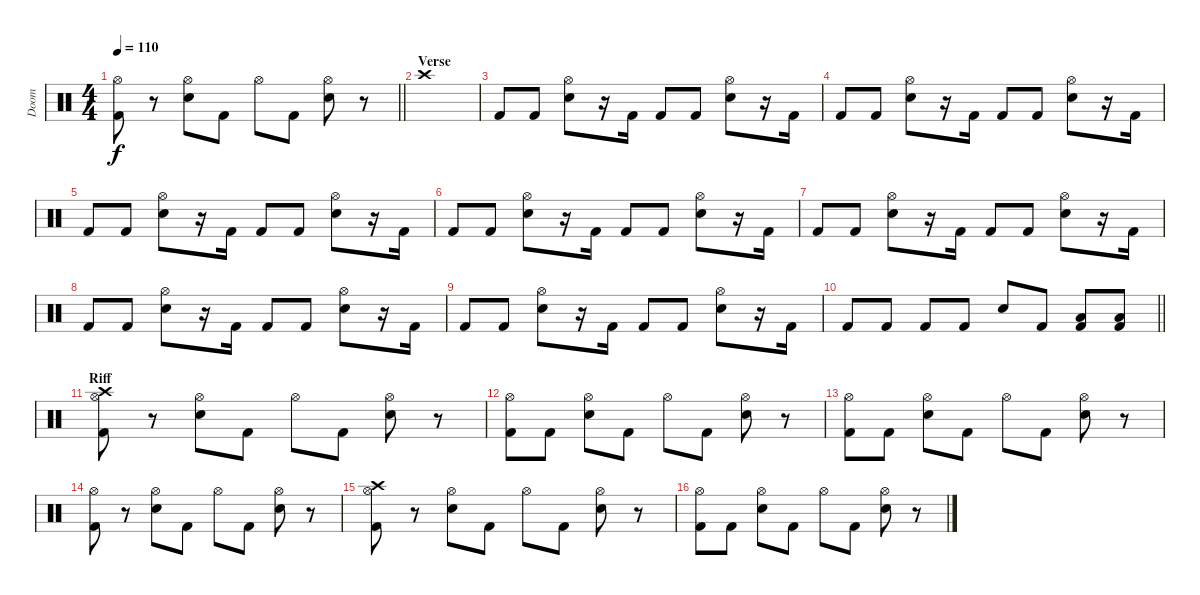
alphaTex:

\track ("Doom" "Doom") {instrument percussion}
\staff {score}
\articulation defaults
\ts (4 4)
\tempo 110
\clef neutral
\barLineRight lightlight
\ks c
("Hi-Hat (open)" "Kick (hit) 2").8{dy f} r.8 ("Hi-Hat (open)" "Electric Snare (hit)").8 "Kick (hit) 2".8 "Hi-Hat (open)".8 "Kick (hit) 2".8 ("Hi-Hat (open)" "Electric Snare (hit)").8 r.8 |
\section ("" "Verse")
"Crash high (hit)".1 |
"Kick (hit) 2".8 "Kick (hit) 2".8 ("Hi-Hat (open)" "Electric Snare (hit)").8 r.16 "Kick (hit) 2".16 "Kick (hit) 2".8 "Kick (hit) 2".8 ("Hi-Hat (open)" "Electric Snare (hit)").8 r.16 "Kick (hit) 2".16 |
"Kick (hit) 2".8 "Kick (hit) 2".8 ("Hi-Hat (open)" "Electric Snare (hit)").8 r.16 "Kick (hit) 2".16 "Kick (hit) 2".8 "Kick (hit) 2".8 ("Hi-Hat (open)" "Electric Snare (hit)").8 r.16 "Kick (hit) 2".16 |
"Kick (hit) 2".8 "Kick (hit) 2".8 ("Hi-Hat (open)" "Electric Snare (hit)").8 r.16 "Kick (hit) 2".16 "Kick (hit) 2".8 "Kick (hit) 2".8 ("Hi-Hat (open)" "Electric Snare (hit)").8 r.16 "Kick (hit) 2".16 |
"Kick (hit) 2".8 "Kick (hit) 2".8 ("Hi-Hat (open)" "Electric Snare (hit)").8 r.16 "Kick (hit) 2".16 "Kick (hit) 2".8 "Kick (hit) 2".8 ("Hi-Hat (open)" "Electric Snare (hit)").8 r.16 "Kick (hit) 2".16 |
"Kick (hit) 2".8 "Kick (hit) 2".8 ("Hi-Hat (open)" "Electric Snare (hit)").8 r.16 "Kick (hit) 2".16 "Kick (hit) 2".8 "Kick (hit) 2".8 ("Hi-Hat (open)" "Electric Snare (hit)").8 r.16 "Kick (hit) 2".16 |
"Kick (hit) 2".8 "Kick (hit) 2".8 ("Hi-Hat (open)" "Electric Snare (hit)").8 r.16 "Kick (hit) 2".16 "Kick (hit) 2".8 "Kick (hit) 2".8 ("Hi-Hat (open)" "Electric Snare (hit)").8 r.16 "Kick (hit) 2".16 |
"Kick (hit) 2".8 "Kick (hit) 2".8 ("Hi-Hat (open)" "Electric Snare (hit)").8 r.16 "Kick (hit) 2".16 "Kick (hit) 2".8 "Kick (hit) 2".8 ("Hi-Hat (open)" "Electric Snare (hit)").8 r.16 "Kick (hit) 2".16 |
\barLineRight lightlight "Kick (hit) 2".8 "Kick (hit) 2".8 "Kick (hit) 2".8 "Kick (hit) 2".8 "Electric Snare (hit)".8 "Kick (hit) 2".8
("Low Floor Tom (hit)" "Kick (hit) 2").8 ("Low Floor Tom (hit)" "Kick (hit) 2").8 |
\section ("" "Riff")
("Crash high (hit)" "Hi-Hat (open)" "Kick (hit) 2").8 r.8 ("Hi-Hat (open)" "Electric Snare (hit)").8 "Kick (hit) 2".8 "Hi-Hat (open)".8 "Kick (hit) 2".8 ("Hi-Hat (open)" "Electric Snare (hit)").8 r.8 |
("Hi-Hat (open)" "Kick (hit) 2").8 "Kick (hit) 2".8 ("Hi-Hat (open)" "Electric Snare (hit)").8 "Kick (hit) 2".8 "Hi-Hat (open)".8 "Kick (hit) 2".8 ("Hi-Hat (open)" "Electric Snare (hit)").8 r.8 |
("Hi-Hat (open)" "Kick (hit) 2").8 "Kick (hit) 2".8 ("Hi-Hat (open)" "Electric Snare (hit)").8 "Kick (hit) 2".8 "Hi-Hat (open)".8 "Kick (hit) 2".8 ("Hi-Hat (open)" "Electric Snare (hit)").8 r.8 |
("Hi-Hat (open)" "Kick (hit) 2").8 r.8 ("Hi-Hat (open)" "Electric Snare (hit)").8 "Kick (hit) 2".8 "Hi-Hat (open)".8 "Kick (hit) 2".8 ("Hi-Hat (open)" "Electric Snare (hit)").8 r.8 |
("Crash high (hit)" "Hi-Hat (open)" "Kick (hit) 2").8 r.8 ("Hi-Hat (open)" "Electric Snare (hit)").8 "Kick (hit) 2".8 "Hi-Hat (open)".8 "Kick (hit) 2".8 ("Hi-Hat (open)" "Electric Snare (hit)").8 r.8 |
("Hi-Hat (open)" "Kick (hit) 2").8 "Kick (hit) 2".8 ("Hi-Hat (open)" "Electric Snare (hit)").8 "Kick (hit) 2".8 "Hi-Hat (open)".8 "Kick (hit) 2".8 ("Hi-Hat (open)" "Electric Snare (hit)").8 r.8
